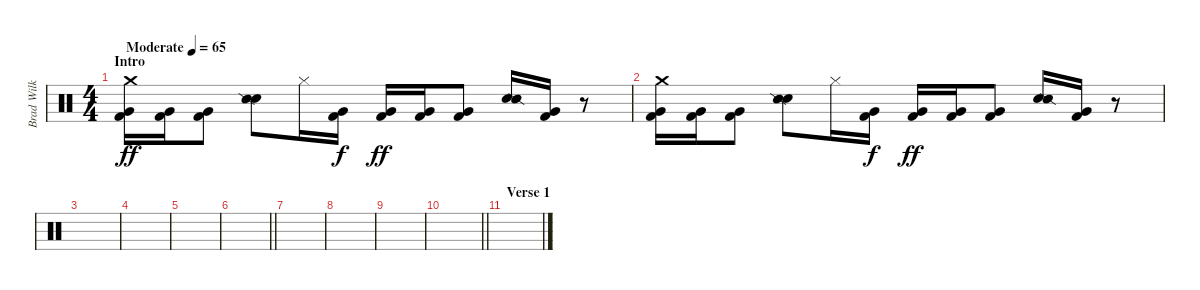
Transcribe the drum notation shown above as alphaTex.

\track ("Brad Wilk" "Brad Wilk") {instrument percussion}
\staff {score}
\articulation defaults
\ts (4 4)
\section ("" "Intro")
\tempo (65 "Moderate")
\clef neutral
\ks c
("Crash medium (hit)" "Very Low Tom (hit)" "Kick (hit) 2").16{dy ff} ("Very Low Tom (hit)" "Kick (hit) 2").16 ("Very Low Tom (hit)" "Kick (hit) 2").8 ("Electric Snare (hit)" "Snare (side stick) 2").8 "Hi-Hat (closed)".16 ("Very Low Tom (hit)" "Kick (hit) 2").16{dy f} ("Very Low Tom (hit)" "Kick (hit) 2").16{dy ff} ("Very Low Tom (hit)" "Kick (hit) 2").16 ("Very Low Tom (hit)" "Kick (hit) 2").8 ("Electric Snare (hit)" "Snare (side stick) 2").16 ("Very Low Tom (hit)" "Kick (hit) 2").16 r.8 |
("Crash medium (hit)" "Very Low Tom (hit)" "Kick (hit) 2").16 ("Very Low Tom (hit)" "Kick (hit) 2").16 ("Very Low Tom (hit)" "Kick (hit) 2").8 ("Electric Snare (hit)" "Snare (side stick) 2").8 "Hi-Hat (closed)".16 ("Very Low Tom (hit)" "Kick (hit) 2").16{dy f} ("Very Low Tom (hit)" "Kick (hit) 2").16{dy ff} ("Very Low Tom (hit)" "Kick (hit) 2").16 ("Very Low Tom (hit)" "Kick (hit) 2").8 ("Electric Snare (hit)" "Snare (side stick) 2").16 ("Very Low Tom (hit)" "Kick (hit) 2").16 r.8 |
|
|
|
\barLineRight lightlight
|
|
|
|
\barLineRight lightlight
|
\section ("" "Verse 1")
